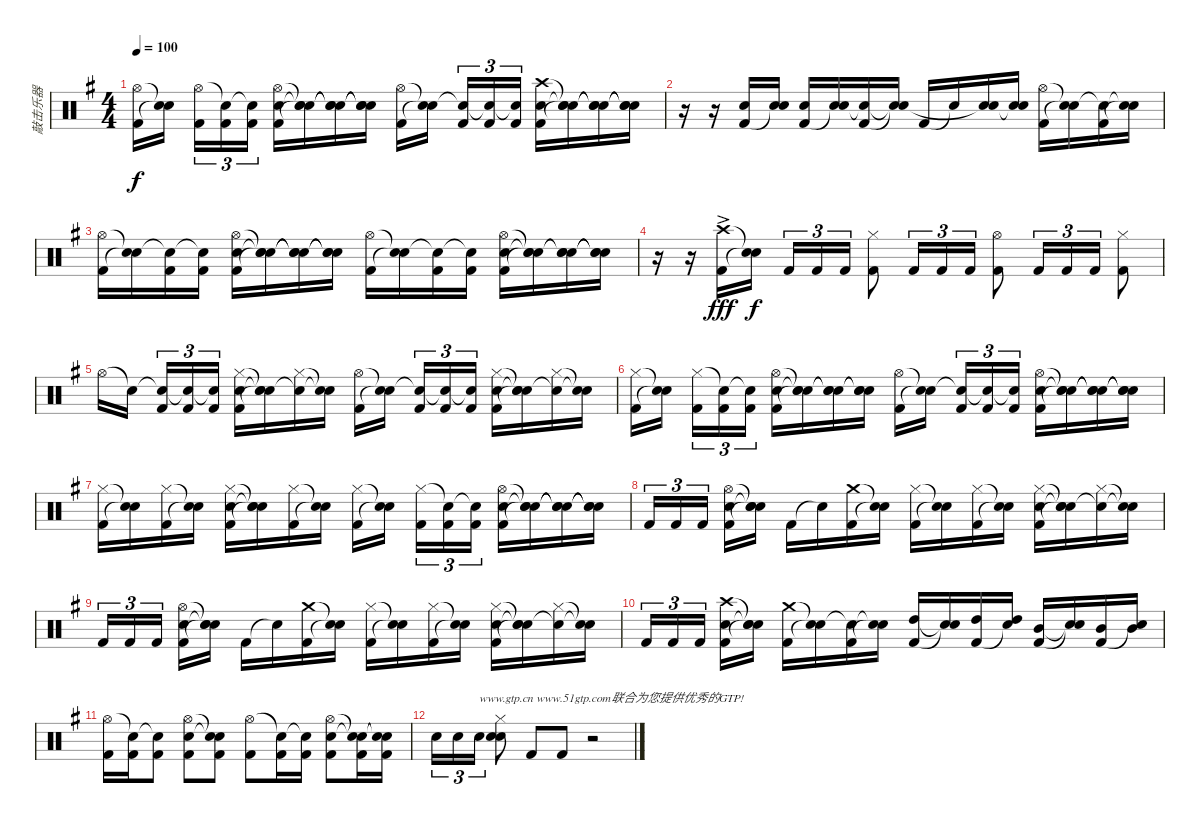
\track ("敲击乐器" "敲击乐器") {instrument percussion}
\staff {score}
\articulation defaults
\ts (4 4)
\tempo 100
\clef neutral
\ks g
("Hi-Hat (open)" "Kick (hit) 2").16{dy f} ("Snare (hit)"{t} "Snare (hit)"{t}).16{beam splitsecondary} ("Hi-Hat (open)" "Kick (hit) 2").16{tu (3 2)} ("Snare (hit)"{t} "Kick (hit) 2").16{tu (3 2)} ("Snare (hit)"{t} "Kick (hit) 2").16{tu (3 2)} ("Hi-Hat (open)" "Snare (hit) 2" "Kick (hit) 2").16 ("Snare (hit)"{t} "Snare (hit)"{t} "Snare (hit)"{t}).16 ("Snare (hit)"{t} "Snare (hit)"{t} "Snare (hit)"{t}).16 ("Snare (hit)"{t} "Snare (hit)"{t} "Snare (hit)"{t}).16 ("Hi-Hat (open)" "Kick (hit) 2").16 ("Snare (hit)"{t} "Snare (hit)"{t}).16{beam splitsecondary} ("Snare (hit)"{t} "Kick (hit) 2").16{tu (3 2)} ("Snare (hit)"{t} "Kick (hit) 2").16{tu (3 2)} ("Snare (hit)"{t} "Kick (hit) 2").16{tu (3 2)} ("Crash high (hit)" "Snare (hit) 2" "Kick (hit) 2").16 ("Snare (hit)"{t} "Snare (hit)"{t} "Snare (hit)"{t}).16 ("Snare (hit)"{t} "Snare (hit)"{t} "Snare (hit)"{t}).16 ("Snare (hit)"{t} "Snare (hit)"{t} "Snare (hit)"{t}).16 |
r.16 r.16 ("Snare (hit) 2" "Kick (hit) 2").16 ("Snare (hit) 2" "Snare (hit)"{t}).16 ("Snare (hit) 2" "Kick (hit) 2").16 ("Snare (hit) 2" "Snare (hit)"{t}).16 ("Snare (hit)"{t} "Kick (hit) 2").16 ("Snare (hit)"{t} "Snare (hit)"{t}).16 "Kick (hit) 2".16 "Snare (hit)"{t}.16 ("Snare (hit) 2" "Snare (hit)"{t}).16 ("Snare (hit) 2" "Snare (hit)"{t}).16 ("Hi-Hat (open)" "Kick (hit) 2").16 ("Snare (hit)"{t} "Snare (hit)"{t}).16 ("Snare (hit)"{t} "Kick (hit) 2").16 ("Snare (hit)"{t} "Snare (hit)"{t}).16 |
("Hi-Hat (open)" "Kick (hit) 2").16 ("Snare (hit)"{t} "Snare (hit)"{t}).16 ("Snare (hit)"{t} "Kick (hit) 2").16 ("Snare (hit)"{t} "Kick (hit) 2").16 ("Hi-Hat (open)" "Snare (hit) 2" "Kick (hit) 2").16 ("Snare (hit)"{t} "Snare (hit)"{t} "Snare (hit)"{t}).16 ("Snare (hit)"{t} "Snare (hit)"{t} "Snare (hit)"{t}).16 ("Snare (hit)"{t} "Snare (hit)"{t} "Snare (hit)"{t}).16 ("Hi-Hat (open)" "Kick (hit) 2").16 ("Snare (hit)"{t} "Snare (hit)"{t}).16 ("Snare (hit)"{t} "Kick (hit) 2").16 ("Snare (hit)"{t} "Kick (hit) 2").16 ("Hi-Hat (open)" "Snare (hit) 2" "Kick (hit) 2").16 ("Snare (hit)"{t} "Snare (hit)"{t} "Snare (hit)"{t}).16 ("Snare (hit)"{t} "Snare (hit) 2" "Snare (hit)"{t}).16 ("Snare (hit)"{t} "Snare (hit)"{t} "Snare (hit)"{t}).16 |
r.16 r.16 ("Crash high (hit)"{ac} "Kick (hit) 2").16{dy fff} ("Snare (hit)"{t} "Snare (hit)"{t}).16{dy f} "Kick (hit) 2".16{tu (3 2)} "Kick (hit) 2".16{tu (3 2)} "Kick (hit) 2".16{tu (3 2)} ("Hi-Hat (closed)" "Kick (hit) 2").8 "Kick (hit) 2".16{tu (3 2)} "Kick (hit) 2".16{tu (3 2)} "Kick (hit) 2".16{tu (3 2)} ("Hi-Hat (open)" "Kick (hit) 2").8 "Kick (hit) 2".16{tu (3 2)} "Kick (hit) 2".16{tu (3 2)} "Kick (hit) 2".16{tu (3 2)} ("Hi-Hat (closed)" "Kick (hit) 2").8 |
"Hi-Hat (open)".16 "Snare (hit)"{t}.16{beam splitsecondary} ("Snare (hit)"{t} "Kick (hit) 2").16{tu (3 2)} ("Snare (hit)"{t} "Kick (hit) 2").16{tu (3 2)} ("Snare (hit)"{t} "Kick (hit) 2").16{tu (3 2)} ("Hi-Hat (closed)" "Snare (hit) 2" "Kick (hit) 2").16 ("Snare (hit)"{t} "Snare (hit)"{t} "Snare (hit)"{t}).16 ("Hi-Hat (closed)" "Snare (hit)"{t}).16 ("Snare (hit)"{t} "Snare (hit)"{t}).16 ("Hi-Hat (open)" "Kick (hit) 2").16 ("Snare (hit)"{t} "Snare (hit)"{t}).16{beam splitsecondary} ("Snare (hit)"{t} "Kick (hit) 2").16{tu (3 2)} ("Snare (hit)"{t} "Kick (hit) 2").16{tu (3 2)} ("Snare (hit)"{t} "Kick (hit) 2").16{tu (3 2)} ("Hi-Hat (closed)" "Snare (hit) 2" "Kick (hit) 2").16 ("Snare (hit)"{t} "Snare (hit)"{t} "Snare (hit)"{t}).16 ("Hi-Hat (closed)" "Snare (hit)"{t}).16 ("Snare (hit)"{t} "Snare (hit)"{t}).16 |
("Hi-Hat (closed)" "Kick (hit) 2").16 ("Snare (hit)"{t} "Snare (hit)"{t}).16{beam splitsecondary} ("Hi-Hat (closed)" "Kick (hit) 2").16{tu (3 2)} ("Snare (hit)"{t} "Kick (hit) 2").16{tu (3 2)} ("Snare (hit)"{t} "Kick (hit) 2").16{tu (3 2)} ("Hi-Hat (open)" "Snare (hit) 2" "Kick (hit) 2").16 ("Snare (hit)"{t} "Snare (hit)"{t} "Snare (hit)"{t}).16 ("Snare (hit)"{t} "Snare (hit) 2" "Snare (hit)"{t}).16 ("Snare (hit)"{t} "Snare (hit) 2" "Snare (hit)"{t}).16 ("Hi-Hat (open)" "Kick (hit) 2").16 ("Snare (hit)"{t} "Snare (hit)"{t}).16{beam splitsecondary} ("Snare (hit)"{t} "Kick (hit) 2").16{tu (3 2)} ("Snare (hit)"{t} "Kick (hit) 2").16{tu (3 2)} ("Snare (hit)"{t} "Kick (hit) 2").16{tu (3 2)} ("Hi-Hat (open)" "Snare (hit) 2" "Kick (hit) 2").16 ("Snare (hit)"{t} "Snare (hit)"{t} "Snare (hit)"{t}).16 ("Snare (hit)"{t} "Snare (hit)"{t} "Snare (hit)"{t}).16 ("Snare (hit)"{t} "Snare (hit)"{t} "Snare (hit)"{t}).16 |
("Hi-Hat (closed)" "Kick (hit) 2").16 ("Snare (hit)"{t} "Snare (hit)"{t}).16 ("Hi-Hat (closed)" "Kick (hit) 2").16 ("Snare (hit)"{t} "Snare (hit)"{t}).16 ("Hi-Hat (closed)" "Snare (hit) 2" "Kick (hit) 2").16 ("Snare (hit)"{t} "Snare (hit)"{t} "Snare (hit)"{t}).16 ("Hi-Hat (closed)" "Kick (hit) 2").16 ("Snare (hit)"{t} "Snare (hit)"{t}).16 ("Hi-Hat (closed)" "Kick (hit) 2").16 ("Snare (hit)"{t} "Snare (hit)"{t}).16{beam splitsecondary} ("Hi-Hat (closed)" "Kick (hit) 2").16{tu (3 2)} ("Snare (hit)"{t} "Kick (hit) 2").16{tu (3 2)} ("Snare (hit)"{t} "Kick (hit) 2").16{tu (3 2)} ("Hi-Hat (open)" "Snare (hit) 2" "Kick (hit) 2").16 ("Snare (hit)"{t} "Snare (hit)"{t} "Snare (hit)"{t}).16 ("Snare (hit)"{t} "Snare (hit)"{t} "Snare (hit)"{t}).16 ("Snare (hit)"{t} "Snare (hit)"{t} "Snare (hit)"{t}).16 |
"Kick (hit) 2".16{tu (3 2)} "Kick (hit) 2".16{tu (3 2)} "Kick (hit) 2".16{tu (3 2) beam splitsecondary} ("Hi-Hat (open)" "Snare (hit) 2" "Kick (hit) 2").16 ("Snare (hit)"{t} "Snare (hit)"{t} "Snare (hit)"{t}).16 "Kick (hit) 2".16 "Snare (hit)"{t}.16 ("Crash medium (hit)" "Kick (hit) 2").16 ("Snare (hit)"{t} "Snare (hit)"{t}).16 ("Hi-Hat (closed)" "Kick (hit) 2").16 ("Snare (hit)"{t} "Snare (hit)"{t}).16 ("Hi-Hat (closed)" "Kick (hit) 2").16 ("Snare (hit)"{t} "Snare (hit)"{t}).16 ("Hi-Hat (closed)" "Snare (hit) 2" "Kick (hit) 2").16 ("Snare (hit)"{t} "Snare (hit)"{t} "Snare (hit)"{t}).16 ("Hi-Hat (closed)" "Snare (hit)"{t}).16 ("Snare (hit)"{t} "Snare (hit)"{t}).16 |
"Kick (hit) 2".16{tu (3 2)} "Kick (hit) 2".16{tu (3 2)} "Kick (hit) 2".16{tu (3 2) beam splitsecondary} ("Hi-Hat (open)" "Snare (hit) 2" "Kick (hit) 2").16 ("Snare (hit)"{t} "Snare (hit)"{t} "Snare (hit)"{t}).16 "Kick (hit) 2".16 "Snare (hit)"{t}.16 ("Crash medium (hit)" "Kick (hit) 2").16 ("Snare (hit)"{t} "Snare (hit)"{t}).16 ("Hi-Hat (closed)" "Kick (hit) 2").16 ("Snare (hit)"{t} "Snare (hit)"{t}).16 ("Hi-Hat (closed)" "Kick (hit) 2").16 ("Snare (hit)"{t} "Snare (hit)"{t}).16 ("Hi-Hat (closed)" "Snare (hit) 2" "Kick (hit) 2").16 ("Snare (hit)"{t} "Snare (hit)"{t} "Snare (hit)"{t}).16 ("Hi-Hat (closed)" "Snare (hit)"{t}).16 ("Snare (hit)"{t} "Snare (hit)"{t}).16 |
"Kick (hit) 2".16{tu (3 2)} "Kick (hit) 2".16{tu (3 2)} "Kick (hit) 2".16{tu (3 2) beam splitsecondary} ("Crash high (hit)" "Snare (hit) 2" "Kick (hit) 2").16 ("Snare (hit)"{t} "Snare (hit)"{t} "Snare (hit)"{t}).16 ("Crash medium (hit)" "Kick (hit) 2").16 ("Snare (hit)"{t} "Snare (hit)"{t}).16 ("Snare (hit)"{t} "Kick (hit) 2").16 ("Snare (hit)"{t} "Snare (hit)"{t}).16 ("High Tom (hit)" "Kick (hit) 2").16 ("Snare (hit)"{t} "Snare (hit)"{t}).16 ("High Tom (hit)" "Kick (hit) 2").16 ("High Tom (hit)" "Snare (hit)"{t}).16 ("Mid Tom (hit)" "Kick (hit) 2").16 ("Snare (hit)"{t} "Snare (hit)"{t}).16 ("Mid Tom (hit)" "Kick (hit) 2").16 ("Mid Tom (hit)" "Snare (hit)"{t}).16 |
("Hi-Hat (open)" "Kick (hit) 2").16 ("Snare (hit)"{t} "Kick (hit) 2").16 ("Snare (hit)"{t} "Kick (hit) 2").8 ("Hi-Hat (open)" "Snare (hit) 2" "Kick (hit) 2").8 ("Snare (hit)"{t} "Snare (hit)"{t} "Kick (hit) 2").8 ("Hi-Hat (open)" "Kick (hit) 2").8 ("Snare (hit)"{t} "Kick (hit) 2").16 ("Snare (hit)"{t} "Kick (hit) 2").16 ("Hi-Hat (open)" "Snare (hit) 2" "Kick (hit) 2").8 ("Snare (hit)"{t} "Snare (hit)"{t} "Kick (hit) 2").16 ("Snare (hit)"{t} "Snare (hit)"{t} "Kick (hit) 2").16 |
"Snare (hit) 2".16{tu (3 2)} "Snare (hit) 2".16{tu (3 2)} "Snare (hit) 2".16{tu (3 2) txt "www.gtp.cn www.51gtp.com联合为您提供优秀的GTP!"} ("Hi-Hat (closed)" "Snare (hit) 2" "Snare (hit) 2").8 "Kick (hit) 2".8 "Kick (hit) 2".8 r.2
